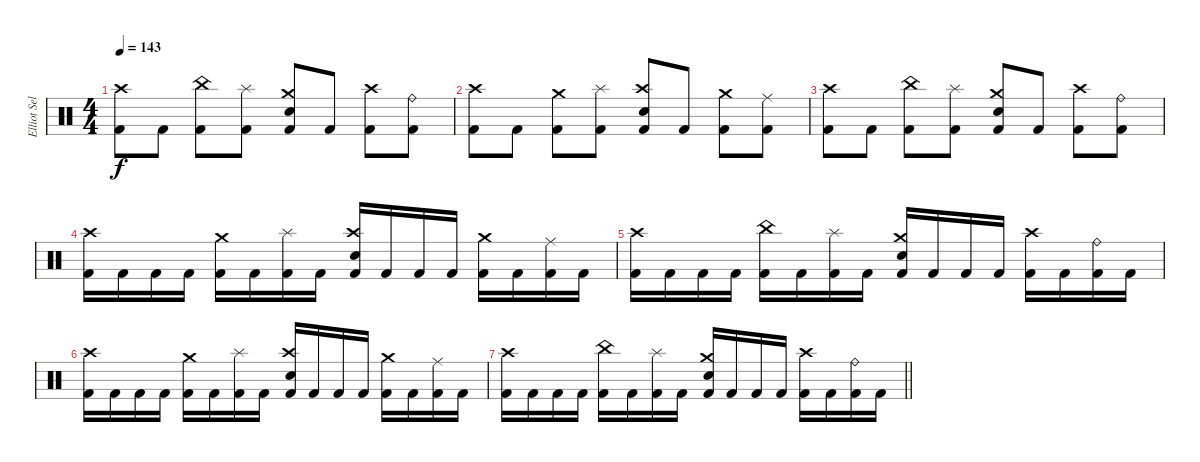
\track ("Elliot Sellers" "Elliot Sel") {instrument percussion}
\staff {score}
\articulation defaults
\ts (4 4)
\tempo 143
\clef neutral
\ks c
("Kick (hit) 2" "Crash high (hit)").8{dy f} "Kick (hit) 2".8 ("Kick (hit) 2" "China (hit)").8 ("Kick (hit) 2" "Splash (hit)").8 ("Kick (hit) 2" "Crash medium (hit)" "Electric Snare (hit)").8 "Kick (hit) 2".8 ("Kick (hit) 2" "Crash high (hit)").8 ("Kick (hit) 2" "Ride (bell)").8 |
("Kick (hit) 2" "Crash high (hit)").8 "Kick (hit) 2".8 ("Kick (hit) 2" "Crash medium (hit)").8 ("Kick (hit) 2" "Splash (hit)").8 ("Kick (hit) 2" "Crash high (hit)" "Electric Snare (hit)").8 "Kick (hit) 2".8 ("Kick (hit) 2" "Crash medium (hit)").8 ("Kick (hit) 2" "Ride (middle)").8 |
("Kick (hit) 2" "Crash high (hit)").8 "Kick (hit) 2".8 ("Kick (hit) 2" "China (hit)").8 ("Kick (hit) 2" "Splash (hit)").8 ("Kick (hit) 2" "Crash medium (hit)" "Electric Snare (hit)").8 "Kick (hit) 2".8 ("Kick (hit) 2" "Crash high (hit)").8 ("Kick (hit) 2" "Ride (bell)").8 |
("Kick (hit) 2" "Crash high (hit)").16 "Kick (hit) 2".16 "Kick (hit) 2".16 "Kick (hit) 2".16 ("Kick (hit) 2" "Crash medium (hit)").16 "Kick (hit) 2".16 ("Kick (hit) 2" "Splash (hit)").16 "Kick (hit) 2".16 ("Kick (hit) 2" "Crash high (hit)" "Electric Snare (hit)").16 "Kick (hit) 2".16 "Kick (hit) 2".16 "Kick (hit) 2".16 ("Kick (hit) 2" "Crash medium (hit)").16 "Kick (hit) 2".16 ("Kick (hit) 2" "Ride (middle)").16 "Kick (hit) 2".16 |
("Kick (hit) 2" "Crash high (hit)").16 "Kick (hit) 2".16 "Kick (hit) 2".16 "Kick (hit) 2".16 ("Kick (hit) 2" "China (hit)").16 "Kick (hit) 2".16 ("Kick (hit) 2" "Splash (hit)").16 "Kick (hit) 2".16 ("Kick (hit) 2" "Crash medium (hit)" "Electric Snare (hit)").16 "Kick (hit) 2".16 "Kick (hit) 2".16 "Kick (hit) 2".16 ("Kick (hit) 2" "Crash high (hit)").16 "Kick (hit) 2".16 ("Kick (hit) 2" "Ride (bell)").16 "Kick (hit) 2".16 |
("Kick (hit) 2" "Crash high (hit)").16 "Kick (hit) 2".16 "Kick (hit) 2".16 "Kick (hit) 2".16 ("Kick (hit) 2" "Crash medium (hit)").16 "Kick (hit) 2".16 ("Kick (hit) 2" "Splash (hit)").16 "Kick (hit) 2".16 ("Kick (hit) 2" "Crash high (hit)" "Electric Snare (hit)").16 "Kick (hit) 2".16 "Kick (hit) 2".16 "Kick (hit) 2".16 ("Kick (hit) 2" "Crash medium (hit)").16 "Kick (hit) 2".16 ("Kick (hit) 2" "Ride (middle)").16 "Kick (hit) 2".16 |
\barLineRight lightlight
("Kick (hit) 2" "Crash high (hit)").16 "Kick (hit) 2".16 "Kick (hit) 2".16 "Kick (hit) 2".16 ("Kick (hit) 2" "China (hit)").16 "Kick (hit) 2".16 ("Kick (hit) 2" "Splash (hit)").16 "Kick (hit) 2".16 ("Kick (hit) 2" "Crash medium (hit)" "Electric Snare (hit)").16 "Kick (hit) 2".16 "Kick (hit) 2".16 "Kick (hit) 2".16 ("Kick (hit) 2" "Crash high (hit)").16 "Kick (hit) 2".16 ("Kick (hit) 2" "Ride (bell)").16 "Kick (hit) 2".16
